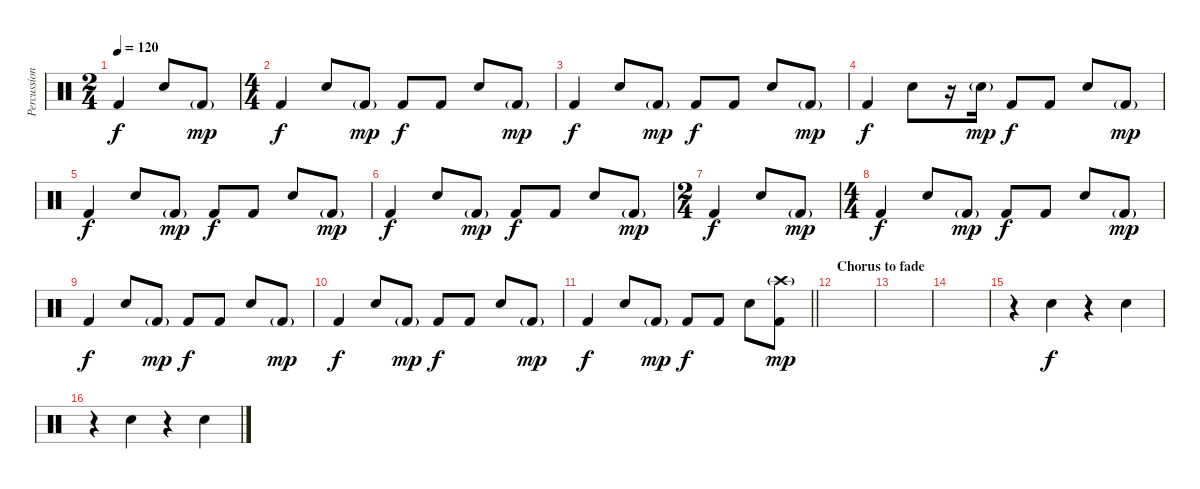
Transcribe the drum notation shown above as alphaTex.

\track ("Percussion" "Percussion") {instrument percussion}
\staff {score}
\articulation defaults
\ts (2 4)
\tempo 120
\clef neutral
\ks c "Kick (hit) 2".4{dy f} "Snare (hit) 2".8 "Kick (hit) 2"{g}.8{dy mp}
|
\ts (4 4)
"Kick (hit) 2".4{dy f} "Snare (hit) 2".8 "Kick (hit) 2"{g}.8{dy mp} "Kick (hit) 2".8{dy f} "Kick (hit) 2".8 "Snare (hit) 2".8 "Kick (hit) 2"{g}.8{dy mp} |
"Kick (hit) 2".4{dy f} "Snare (hit) 2".8 "Kick (hit) 2"{g}.8{dy mp} "Kick (hit) 2".8{dy f} "Kick (hit) 2".8 "Snare (hit) 2".8 "Kick (hit) 2"{g}.8{dy mp} |
"Kick (hit) 2".4{dy f} "Snare (hit) 2".8 r.16 "Snare (hit) 2"{g}.16{dy mp} "Kick (hit) 2".8{dy f} "Kick (hit) 2".8 "Snare (hit) 2".8 "Kick (hit) 2"{g}.8{dy mp} |
"Kick (hit) 2".4{dy f} "Snare (hit) 2".8 "Kick (hit) 2"{g}.8{dy mp} "Kick (hit) 2".8{dy f} "Kick (hit) 2".8 "Snare (hit) 2".8 "Kick (hit) 2"{g}.8{dy mp} |
"Kick (hit) 2".4{dy f} "Snare (hit) 2".8 "Kick (hit) 2"{g}.8{dy mp} "Kick (hit) 2".8{dy f} "Kick (hit) 2".8 "Snare (hit) 2".8 "Kick (hit) 2"{g}.8{dy mp} |
\ts (2 4)
"Kick (hit) 2".4{dy f} "Snare (hit) 2".8 "Kick (hit) 2"{g}.8{dy mp} |
\ts (4 4)
"Kick (hit) 2".4{dy f} "Snare (hit) 2".8 "Kick (hit) 2"{g}.8{dy mp} "Kick (hit) 2".8{dy f} "Kick (hit) 2".8 "Snare (hit) 2".8 "Kick (hit) 2"{g}.8{dy mp} |
"Kick (hit) 2".4{dy f} "Snare (hit) 2".8 "Kick (hit) 2"{g}.8{dy mp} "Kick (hit) 2".8{dy f} "Kick (hit) 2".8 "Snare (hit) 2".8 "Kick (hit) 2"{g}.8{dy mp} |
"Kick (hit) 2".4{dy f} "Snare (hit) 2".8 "Kick (hit) 2"{g}.8{dy mp} "Kick (hit) 2".8{dy f} "Kick (hit) 2".8 "Snare (hit) 2".8 "Kick (hit) 2"{g}.8{dy mp} |
\barLineRight lightlight "Kick (hit) 2".4{dy f} "Snare (hit) 2".8 "Kick (hit) 2"{g}.8{dy mp} "Kick (hit) 2".8{dy f} "Kick (hit) 2".8 "Snare (hit) 2".8
("Crash high (hit)"{g} "Kick (hit) 2").8{dy mp} |
\section ("" "Chorus to fade")
|
|
|
r.4 "Snare (hit) 2".4{dy f} r.4 "Snare (hit) 2".4 |
r.4 "Snare (hit) 2".4 r.4 "Snare (hit) 2".4
